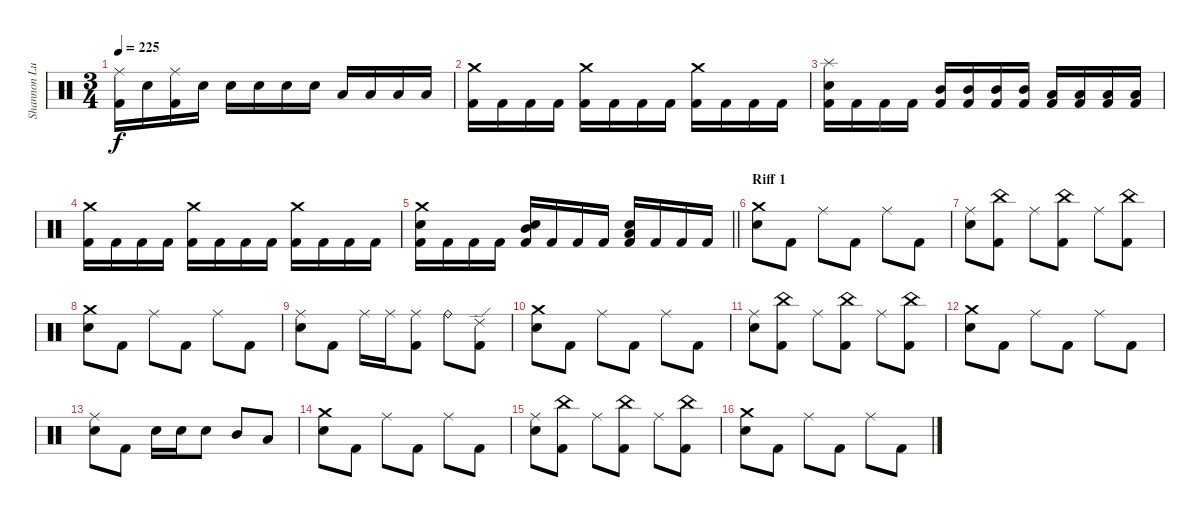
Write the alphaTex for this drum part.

\track ("Shannon Lucas" "Shannon Lu") {instrument percussion}
\staff {score}
\articulation defaults
\ts (3 4)
\tempo 225
\clef neutral
\ks c
("Ride (middle)" "Kick (hit) 2").16{dy f} "Electric Snare (hit)".16 ("Ride (middle)" "Kick (hit) 2").16 "Electric Snare (hit)".16 "Electric Snare (hit)".16 "Electric Snare (hit)".16 "Electric Snare (hit)".16 "Electric Snare (hit)".16 "Low Tom (hit)".16 "Low Tom (hit)".16 "Low Tom (hit)".16 "Low Tom (hit)".16 |
("Crash medium (hit)" "Kick (hit) 2").16 "Kick (hit) 2".16 "Kick (hit) 2".16 "Kick (hit) 2".16 ("Crash medium (hit)" "Kick (hit) 2").16 "Kick (hit) 2".16 "Kick (hit) 2".16 "Kick (hit) 2".16 ("Crash medium (hit)" "Kick (hit) 2").16 "Kick (hit) 2".16 "Kick (hit) 2".16 "Kick (hit) 2".16 |
("Splash (hit)" "Electric Snare (hit)" "Kick (hit) 2").16 "Kick (hit) 2".16 "Kick (hit) 2".16 "Kick (hit) 2".16 ("Mid Tom (hit)" "Kick (hit) 2").16 ("Mid Tom (hit)" "Kick (hit) 2").16 ("Mid Tom (hit)" "Kick (hit) 2").16 ("Mid Tom (hit)" "Kick (hit) 2").16 ("Low Tom (hit)" "Kick (hit) 2").16 ("Low Tom (hit)" "Kick (hit) 2").16 ("Low Tom (hit)" "Kick (hit) 2").16 ("Low Tom (hit)" "Kick (hit) 2").16 |
("Crash medium (hit)" "Kick (hit) 2").16 "Kick (hit) 2".16 "Kick (hit) 2".16 "Kick (hit) 2".16 ("Crash medium (hit)" "Kick (hit) 2").16 "Kick (hit) 2".16 "Kick (hit) 2".16 "Kick (hit) 2".16 ("Crash medium (hit)" "Kick (hit) 2").16 "Kick (hit) 2".16 "Kick (hit) 2".16 "Kick (hit) 2".16 |
\barLineRight lightlight
("Crash medium (hit)" "Electric Snare (hit)" "Kick (hit) 2").16 "Kick (hit) 2".16 "Kick (hit) 2".16 "Kick (hit) 2".16 ("Mid Tom (hit)" "Electric Snare (hit)" "Kick (hit) 2").16 "Kick (hit) 2".16 "Kick (hit) 2".16 "Kick (hit) 2".16 ("Low Tom (hit)" "Electric Snare (hit)" "Kick (hit) 2").16 "Kick (hit) 2".16 "Kick (hit) 2".16 "Kick (hit) 2".16 |
\section ("" "Riff 1")
("Crash medium (hit)" "Electric Snare (hit)").8 "Kick (hit) 2".8 "Ride (middle)".8 "Kick (hit) 2".8 "Ride (middle)".8 "Kick (hit) 2".8 |
("Ride (middle)" "Electric Snare (hit)").8 ("China (hit)" "Kick (hit) 2").8 "Ride (middle)".8 ("China (hit)" "Kick (hit) 2").8 "Ride (middle)".8 ("China (hit)" "Kick (hit) 2").8 |
("Crash medium (hit)" "Electric Snare (hit)").8 "Kick (hit) 2".8 "Ride (middle)".8 "Kick (hit) 2".8 "Ride (middle)".8 "Kick (hit) 2".8 |
("Ride (middle)" "Electric Snare (hit)").8 "Kick (hit) 2".8 "Ride (middle)".16 "Ride (middle)".16 ("Ride (middle)" "Kick (hit) 2").8 "Ride (bell)".8 ("Ride (edge) 2" "Kick (hit) 2").8 |
("Crash medium (hit)" "Electric Snare (hit)").8 "Kick (hit) 2".8 "Ride (middle)".8 "Kick (hit) 2".8 "Ride (middle)".8 "Kick (hit) 2".8 |
("Ride (middle)" "Electric Snare (hit)").8 ("China (hit)" "Kick (hit) 2").8 "Ride (middle)".8 ("China (hit)" "Kick (hit) 2").8 "Ride (middle)".8 ("China (hit)" "Kick (hit) 2").8 |
("Crash medium (hit)" "Electric Snare (hit)").8 "Kick (hit) 2".8 "Ride (middle)".8 "Kick (hit) 2".8 "Ride (middle)".8 "Kick (hit) 2".8 |
("Ride (middle)" "Electric Snare (hit)").8 "Kick (hit) 2".8 "Electric Snare (hit)".16 "Electric Snare (hit)".16 "Electric Snare (hit)".8 "Mid Tom (hit)".8 "Low Tom (hit)".8 |
("Crash medium (hit)" "Electric Snare (hit)").8 "Kick (hit) 2".8 "Ride (middle)".8 "Kick (hit) 2".8 "Ride (middle)".8 "Kick (hit) 2".8 |
("Ride (middle)" "Electric Snare (hit)").8 ("China (hit)" "Kick (hit) 2").8 "Ride (middle)".8 ("China (hit)" "Kick (hit) 2").8 "Ride (middle)".8 ("China (hit)" "Kick (hit) 2").8 |
("Crash medium (hit)" "Electric Snare (hit)").8 "Kick (hit) 2".8 "Ride (middle)".8 "Kick (hit) 2".8 "Ride (middle)".8 "Kick (hit) 2".8
